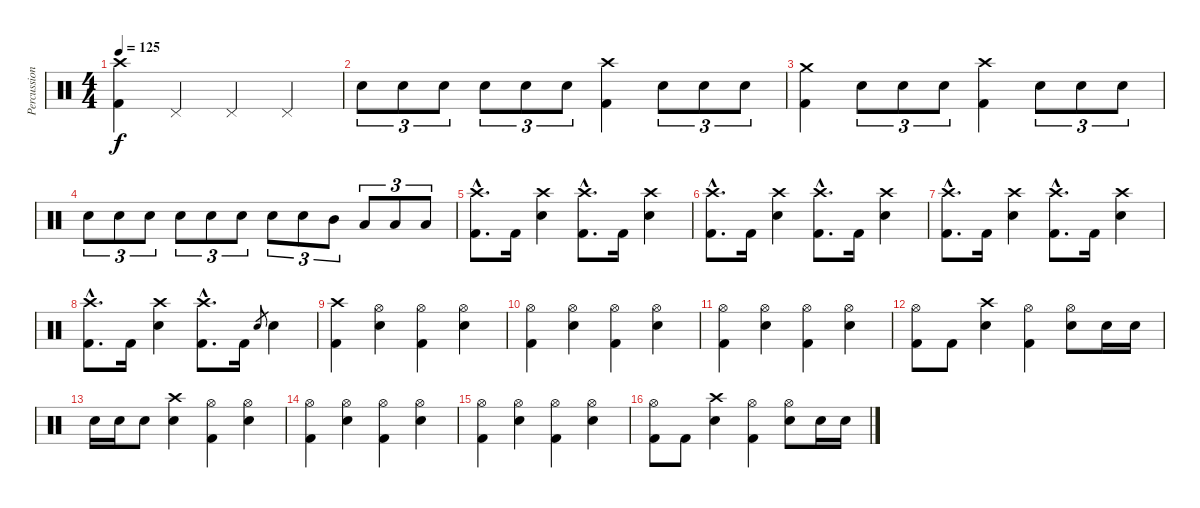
\track ("Percussion" "Percussion") {instrument percussion}
\staff {score}
\articulation defaults
\ts (4 4)
\tempo 125
\clef neutral
\ks c
("Kick (hit) 2" "Crash high (hit)").4{dy f} "Pedal Hi-Hat (hit)".4 "Pedal Hi-Hat (hit)".4 "Pedal Hi-Hat (hit)".4 |
"Electric Snare (hit)".8{tu (3 2)} "Electric Snare (hit)".8{tu (3 2)} "Electric Snare (hit)".8{tu (3 2)} "Electric Snare (hit)".8{tu (3 2)} "Electric Snare (hit)".8{tu (3 2)} "Electric Snare (hit)".8{tu (3 2)} ("Kick (hit) 2" "Crash high (hit)").4 "Electric Snare (hit)".8{tu (3 2)} "Electric Snare (hit)".8{tu (3 2)} "Electric Snare (hit)".8{tu (3 2)} |
("Kick (hit) 2" "Crash medium (hit)").4 "Electric Snare (hit)".8{tu (3 2)} "Electric Snare (hit)".8{tu (3 2)} "Electric Snare (hit)".8{tu (3 2)} ("Kick (hit) 2" "Crash high (hit)").4 "Electric Snare (hit)".8{tu (3 2)} "Electric Snare (hit)".8{tu (3 2)} "Electric Snare (hit)".8{tu (3 2)} |
"Electric Snare (hit)".8{tu (3 2)} "Electric Snare (hit)".8{tu (3 2)} "Electric Snare (hit)".8{tu (3 2)} "Electric Snare (hit)".8{tu (3 2)} "Electric Snare (hit)".8{tu (3 2)} "Electric Snare (hit)".8{tu (3 2)} "Electric Snare (hit)".8{tu (3 2)} "Electric Snare (hit)".8{tu (3 2)} "Mid Tom (hit)".8{tu (3 2)} "Low Tom (hit)".8{tu (3 2)} "Low Tom (hit)".8{tu (3 2)} "Low Tom (hit)".8{tu (3 2)} |
("Kick (hit) 2"{hac} "Crash high (hit)"{hac}).8{d} "Kick (hit) 2".16 ("Electric Snare (hit)" "Crash high (hit)").4 ("Kick (hit) 2"{hac} "Crash high (hit)"{hac}).8{d} "Kick (hit) 2".16 ("Electric Snare (hit)" "Crash high (hit)").4 |
("Kick (hit) 2"{hac} "Crash high (hit)"{hac}).8{d} "Kick (hit) 2".16 ("Electric Snare (hit)" "Crash high (hit)").4 ("Kick (hit) 2"{hac} "Crash high (hit)"{hac}).8{d} "Kick (hit) 2".16 ("Electric Snare (hit)" "Crash high (hit)").4 |
("Kick (hit) 2"{hac} "Crash high (hit)"{hac}).8{d} "Kick (hit) 2".16 ("Electric Snare (hit)" "Crash high (hit)").4 ("Kick (hit) 2"{hac} "Crash high (hit)"{hac}).8{d} "Kick (hit) 2".16 ("Electric Snare (hit)" "Crash high (hit)").4 |
("Kick (hit) 2"{hac} "Crash high (hit)"{hac}).8{d} "Kick (hit) 2".16 ("Electric Snare (hit)" "Crash high (hit)").4 ("Kick (hit) 2"{hac} "Crash high (hit)"{hac}).8{d} "Kick (hit) 2".16 "Electric Snare (hit)".8{gr} "Electric Snare (hit)".4 |
("Kick (hit) 2" "Crash high (hit)").4 ("Electric Snare (hit)" "Hi-Hat (open)").4 ("Kick (hit) 2" "Hi-Hat (open)").4 ("Electric Snare (hit)" "Hi-Hat (open)").4 |
("Kick (hit) 2" "Hi-Hat (open)").4 ("Electric Snare (hit)" "Hi-Hat (open)").4 ("Kick (hit) 2" "Hi-Hat (open)").4 ("Electric Snare (hit)" "Hi-Hat (open)").4 |
("Kick (hit) 2" "Hi-Hat (open)").4 ("Electric Snare (hit)" "Hi-Hat (open)").4 ("Kick (hit) 2" "Hi-Hat (open)").4 ("Electric Snare (hit)" "Hi-Hat (open)").4 |
("Kick (hit) 2" "Hi-Hat (open)").8 "Kick (hit) 2".8 ("Electric Snare (hit)" "Crash high (hit)").4 ("Kick (hit) 2" "Hi-Hat (open)").4 ("Electric Snare (hit)" "Hi-Hat (open)").8 "Electric Snare (hit)".16 "Electric Snare (hit)".16 |
"Electric Snare (hit)".16 "Electric Snare (hit)".16 "Electric Snare (hit)".8 ("Electric Snare (hit)" "Crash high (hit)").4 ("Kick (hit) 2" "Hi-Hat (open)").4 ("Electric Snare (hit)" "Hi-Hat (open)").4 |
("Kick (hit) 2" "Hi-Hat (open)").4 ("Electric Snare (hit)" "Hi-Hat (open)").4 ("Kick (hit) 2" "Hi-Hat (open)").4 ("Electric Snare (hit)" "Hi-Hat (open)").4 |
("Kick (hit) 2" "Hi-Hat (open)").4 ("Electric Snare (hit)" "Hi-Hat (open)").4 ("Kick (hit) 2" "Hi-Hat (open)").4 ("Electric Snare (hit)" "Hi-Hat (open)").4 |
("Kick (hit) 2" "Hi-Hat (open)").8 "Kick (hit) 2".8 ("Electric Snare (hit)" "Crash high (hit)").4 ("Kick (hit) 2" "Hi-Hat (open)").4 ("Electric Snare (hit)" "Hi-Hat (open)").8 "Electric Snare (hit)".16 "Electric Snare (hit)".16
